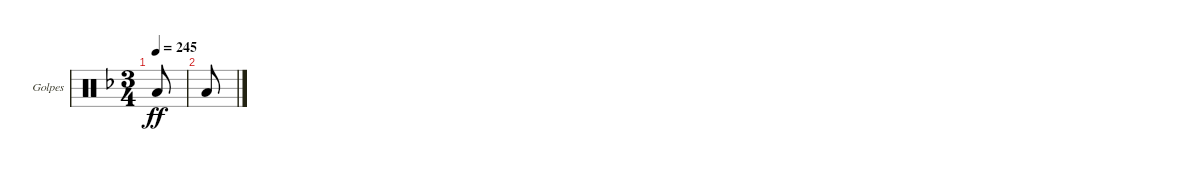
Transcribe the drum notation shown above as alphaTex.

\defaultSystemsLayout 4
\bracketExtendMode groupsimilarinstruments
\firstSystemTrackNameOrientation horizontal
\otherSystemsTrackNameOrientation horizontal
\track ("Golpes" "Golpes") {instrument percussion}
\staff {score}
\articulation defaults
\ts (3 4)
\tempo 245
\clef neutral
\ks f "Low Tom (hit)".8{dy ff}
|
"Low Tom (hit)".8
